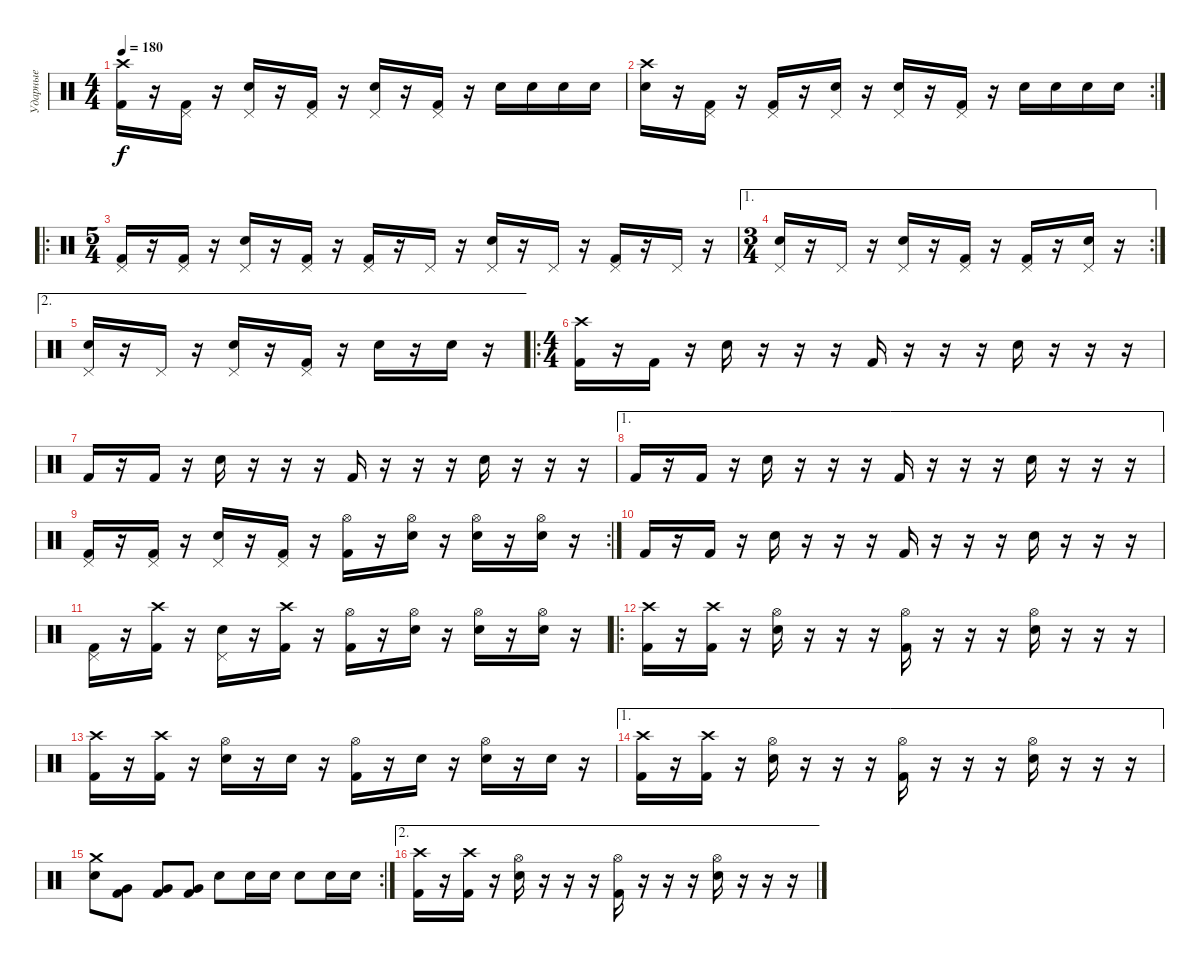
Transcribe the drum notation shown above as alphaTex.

\track ("Ударные" "Ударные") {instrument percussion}
\staff {score}
\articulation defaults
\ts (4 4)
\tempo 180
\clef neutral
\ks c
("Crash high (hit)" "Kick (hit) 2").16{dy f} r.16 ("Pedal Hi-Hat (hit)" "Kick (hit) 2").16 r.16 ("Pedal Hi-Hat (hit)" "Electric Snare (hit)").16 r.16 ("Pedal Hi-Hat (hit)" "Kick (hit) 2").16 r.16 ("Pedal Hi-Hat (hit)" "Electric Snare (hit)").16 r.16 ("Pedal Hi-Hat (hit)" "Kick (hit) 2").16 r.16 "Electric Snare (hit)".16 "Electric Snare (hit)".16 "Electric Snare (hit)".16 "Electric Snare (hit)".16 |
\rc 2
("Crash high (hit)" "Electric Snare (hit)").16 r.16 ("Pedal Hi-Hat (hit)" "Kick (hit) 2").16 r.16 ("Pedal Hi-Hat (hit)" "Kick (hit) 2").16 r.16 ("Pedal Hi-Hat (hit)" "Electric Snare (hit)").16 r.16 ("Pedal Hi-Hat (hit)" "Electric Snare (hit)").16 r.16 ("Pedal Hi-Hat (hit)" "Kick (hit) 2").16 r.16 "Electric Snare (hit)".16 "Electric Snare (hit)".16 "Electric Snare (hit)".16 "Electric Snare (hit)".16 |
\ro
\ts (5 4)
("Pedal Hi-Hat (hit)" "Kick (hit) 2").16 r.16 ("Pedal Hi-Hat (hit)" "Kick (hit) 2").16 r.16 ("Pedal Hi-Hat (hit)" "Electric Snare (hit)").16 r.16 ("Pedal Hi-Hat (hit)" "Kick (hit) 2").16 r.16 ("Pedal Hi-Hat (hit)" "Kick (hit) 2").16 r.16 "Pedal Hi-Hat (hit)".16 r.16 ("Pedal Hi-Hat (hit)" "Electric Snare (hit)").16 r.16 "Pedal Hi-Hat (hit)".16 r.16 ("Pedal Hi-Hat (hit)" "Kick (hit) 2").16 r.16 "Pedal Hi-Hat (hit)".16 r.16 |
\ae 1
\rc 2
\ts (3 4)
("Pedal Hi-Hat (hit)" "Electric Snare (hit)").16 r.16 "Pedal Hi-Hat (hit)".16 r.16 ("Pedal Hi-Hat (hit)" "Electric Snare (hit)").16 r.16 ("Pedal Hi-Hat (hit)" "Kick (hit) 2").16 r.16 ("Pedal Hi-Hat (hit)" "Kick (hit) 2").16 r.16 ("Pedal Hi-Hat (hit)" "Electric Snare (hit)").16 r.16 |
\ae 2
("Pedal Hi-Hat (hit)" "Electric Snare (hit)").16 r.16 "Pedal Hi-Hat (hit)".16 r.16 ("Pedal Hi-Hat (hit)" "Electric Snare (hit)").16 r.16 ("Pedal Hi-Hat (hit)" "Kick (hit) 2").16 r.16 "Electric Snare (hit)".16 r.16 "Electric Snare (hit)".16 r.16 |
\ro
\ts (4 4)
("Crash high (hit)" "Kick (hit) 2").16 r.16 "Kick (hit) 2".16 r.16 "Electric Snare (hit)".16 r.16 r.16 r.16 "Kick (hit) 2".16 r.16 r.16 r.16 "Electric Snare (hit)".16 r.16 r.16 r.16 |
"Kick (hit) 2".16 r.16 "Kick (hit) 2".16 r.16 "Electric Snare (hit)".16 r.16 r.16 r.16 "Kick (hit) 2".16 r.16 r.16 r.16 "Electric Snare (hit)".16 r.16 r.16 r.16 |
\ae 1 "Kick (hit) 2".16
r.16 "Kick (hit) 2".16 r.16 "Electric Snare (hit)".16 r.16 r.16 r.16 "Kick (hit) 2".16 r.16 r.16 r.16 "Electric Snare (hit)".16 r.16 r.16 r.16 |
\rc 2
("Pedal Hi-Hat (hit)" "Kick (hit) 2").16 r.16 ("Pedal Hi-Hat (hit)" "Kick (hit) 2").16 r.16 ("Pedal Hi-Hat (hit)" "Electric Snare (hit)").16 r.16 ("Pedal Hi-Hat (hit)" "Kick (hit) 2").16 r.16 ("Hi-Hat (open)" "Kick (hit) 2").16 r.16 ("Hi-Hat (open)" "Electric Snare (hit)").16 r.16 ("Hi-Hat (open)" "Electric Snare (hit)").16 r.16 ("Hi-Hat (open)" "Electric Snare (hit)").16 r.16 |
"Kick (hit) 2".16 r.16 "Kick (hit) 2".16 r.16 "Electric Snare (hit)".16 r.16 r.16 r.16 "Kick (hit) 2".16 r.16 r.16 r.16 "Electric Snare (hit)".16 r.16 r.16 r.16 |
("Pedal Hi-Hat (hit)" "Kick (hit) 2").16 r.16 ("Crash high (hit)" "Kick (hit) 2").16 r.16 ("Pedal Hi-Hat (hit)" "Electric Snare (hit)").16 r.16 ("Crash high (hit)" "Kick (hit) 2").16 r.16 ("Hi-Hat (open)" "Kick (hit) 2").16 r.16 ("Hi-Hat (open)" "Electric Snare (hit)").16 r.16 ("Hi-Hat (open)" "Electric Snare (hit)").16 r.16 ("Hi-Hat (open)" "Electric Snare (hit)").16 r.16 |
\ro
("Crash high (hit)" "Kick (hit) 2").16 r.16 ("Crash high (hit)" "Kick (hit) 2").16 r.16 ("Hi-Hat (open)" "Electric Snare (hit)").16 r.16 r.16 r.16 ("Hi-Hat (open)" "Kick (hit) 2").16 r.16 r.16 r.16 ("Hi-Hat (open)" "Electric Snare (hit)").16 r.16 r.16 r.16 |
("Crash high (hit)" "Kick (hit) 2").16 r.16 ("Crash high (hit)" "Kick (hit) 2").16 r.16 ("Hi-Hat (open)" "Electric Snare (hit)").16 r.16 "Electric Snare (hit)".16 r.16 ("Hi-Hat (open)" "Kick (hit) 2").16 r.16 "Electric Snare (hit)".16 r.16 ("Hi-Hat (open)" "Electric Snare (hit)").16 r.16 "Electric Snare (hit)".16 r.16 |
\ae 1
("Crash high (hit)" "Kick (hit) 2").16 r.16 ("Crash high (hit)" "Kick (hit) 2").16 r.16 ("Hi-Hat (open)" "Electric Snare (hit)").16 r.16 r.16 r.16 ("Hi-Hat (open)" "Kick (hit) 2").16 r.16 r.16 r.16 ("Hi-Hat (open)" "Electric Snare (hit)").16 r.16 r.16 r.16 |
\rc 2
("Crash medium (hit)" "Electric Snare (hit)").8 ("Very Low Tom (hit)" "Kick (hit) 2").8 ("Very Low Tom (hit)" "Kick (hit) 2").8 ("Very Low Tom (hit)" "Kick (hit) 2").8 "Electric Snare (hit)".8 "Electric Snare (hit)".16 "Electric Snare (hit)".16 "Electric Snare (hit)".8 "Electric Snare (hit)".16 "Electric Snare (hit)".16 |
\ae 2
("Crash high (hit)" "Kick (hit) 2").16 r.16 ("Crash high (hit)" "Kick (hit) 2").16 r.16 ("Hi-Hat (open)" "Electric Snare (hit)").16 r.16 r.16 r.16 ("Hi-Hat (open)" "Kick (hit) 2").16 r.16 r.16 r.16 ("Hi-Hat (open)" "Electric Snare (hit)").16 r.16 r.16 r.16
